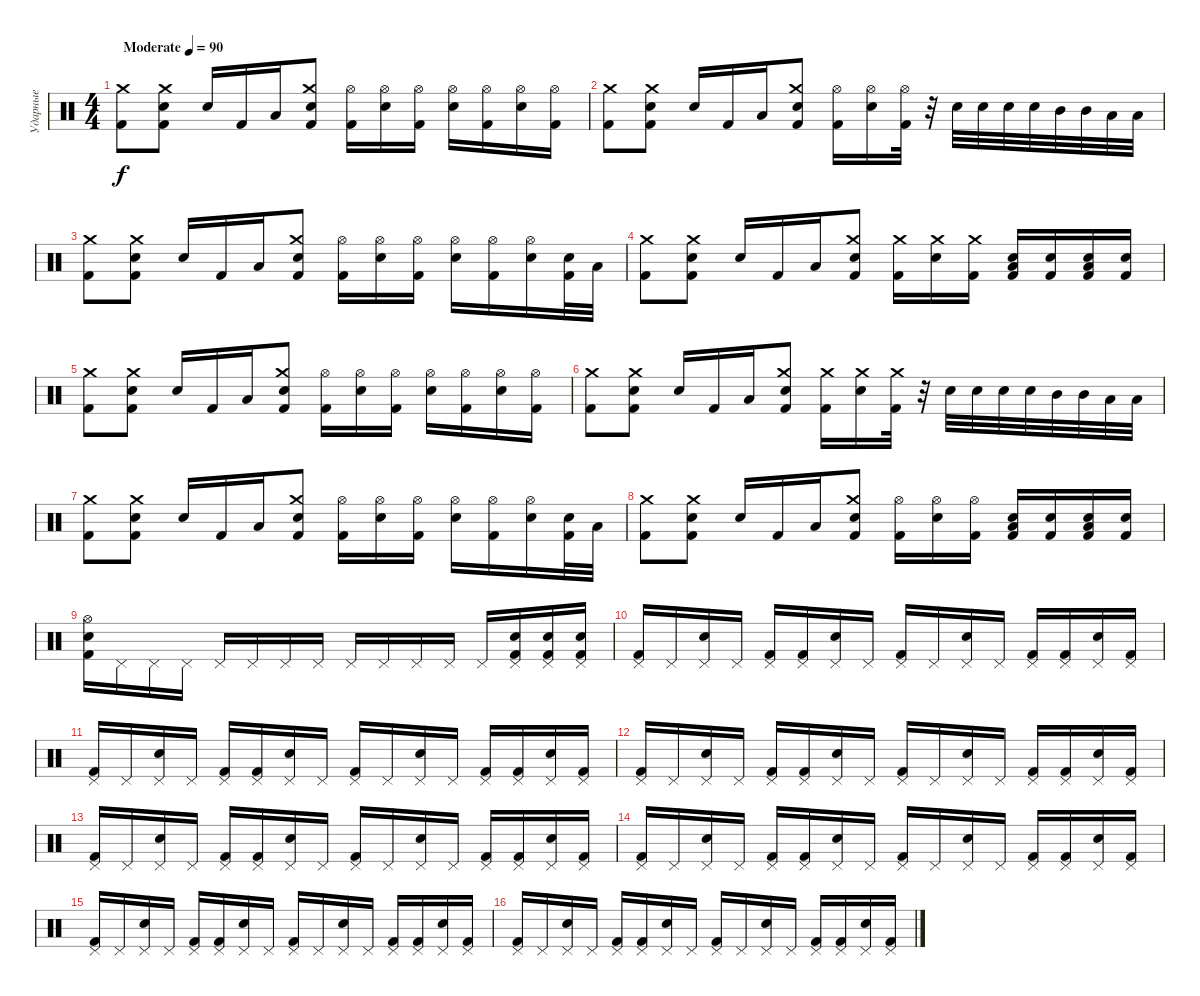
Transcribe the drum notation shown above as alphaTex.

\track ("Ударные" "Ударные") {instrument percussion}
\staff {score}
\articulation defaults
\ts (4 4)
\tempo (90 "Moderate")
\clef neutral
\ks c
("Kick (hit) 2" "Crash medium (hit)").8{dy f} ("Kick (hit) 2" "Electric Snare (hit)" "Crash medium (hit)").8 "Electric Snare (hit)".16 "Kick (hit) 2".16 "Low Tom (hit)".16 ("Kick (hit) 2" "Electric Snare (hit)" "Crash medium (hit)").8 ("Kick (hit) 2" "Hi-Hat (open)").16 ("Electric Snare (hit)" "Hi-Hat (open)").16 ("Kick (hit) 2" "Hi-Hat (open)").16 ("Electric Snare (hit)" "Hi-Hat (open)").16 ("Kick (hit) 2" "Hi-Hat (open)").16 ("Electric Snare (hit)" "Hi-Hat (open)").16 ("Kick (hit) 2" "Hi-Hat (open)").16 |
("Kick (hit) 2" "Crash medium (hit)").8 ("Kick (hit) 2" "Electric Snare (hit)" "Crash medium (hit)").8 "Electric Snare (hit)".16 "Kick (hit) 2".16 "Low Tom (hit)".16 ("Kick (hit) 2" "Electric Snare (hit)" "Crash medium (hit)").8 ("Kick (hit) 2" "Hi-Hat (open)").16 ("Electric Snare (hit)" "Hi-Hat (open)").16 ("Kick (hit) 2" "Hi-Hat (open)").32 r.32 "Electric Snare (hit)".32 "Electric Snare (hit)".32 "Electric Snare (hit)".32 "Electric Snare (hit)".32 "Mid Tom (hit)".32 "Mid Tom (hit)".32 "Low Tom (hit)".32 "Low Tom (hit)".32 |
("Kick (hit) 2" "Crash medium (hit)").8 ("Kick (hit) 2" "Electric Snare (hit)" "Crash medium (hit)").8 "Electric Snare (hit)".16 "Kick (hit) 2".16 "Low Tom (hit)".16 ("Kick (hit) 2" "Electric Snare (hit)" "Crash medium (hit)").8 ("Kick (hit) 2" "Hi-Hat (open)").16 ("Electric Snare (hit)" "Hi-Hat (open)").16 ("Kick (hit) 2" "Hi-Hat (open)").16 ("Electric Snare (hit)" "Hi-Hat (open)").16 ("Kick (hit) 2" "Hi-Hat (open)").16 ("Electric Snare (hit)" "Hi-Hat (open)").16 ("Kick (hit) 2" "Electric Snare (hit)").32 "Low Tom (hit)".32 |
("Kick (hit) 2" "Crash medium (hit)").8 ("Kick (hit) 2" "Electric Snare (hit)" "Crash medium (hit)").8 "Electric Snare (hit)".16 "Kick (hit) 2".16 "Low Tom (hit)".16 ("Kick (hit) 2" "Electric Snare (hit)" "Crash medium (hit)").8 ("Kick (hit) 2" "Crash medium (hit)").16 ("Electric Snare (hit)" "Crash medium (hit)").16 ("Kick (hit) 2" "Crash medium (hit)").16 ("Low Tom (hit)" "Electric Snare (hit)" "Kick (hit) 2").16 ("Electric Snare (hit)" "Kick (hit) 2").16 ("Low Tom (hit)" "Electric Snare (hit)" "Kick (hit) 2").16 ("Electric Snare (hit)" "Kick (hit) 2").16 |
("Kick (hit) 2" "Crash medium (hit)").8 ("Kick (hit) 2" "Electric Snare (hit)" "Crash medium (hit)").8 "Electric Snare (hit)".16 "Kick (hit) 2".16 "Low Tom (hit)".16 ("Kick (hit) 2" "Electric Snare (hit)" "Crash medium (hit)").8 ("Kick (hit) 2" "Hi-Hat (open)").16 ("Electric Snare (hit)" "Hi-Hat (open)").16 ("Kick (hit) 2" "Hi-Hat (open)").16 ("Electric Snare (hit)" "Hi-Hat (open)").16 ("Kick (hit) 2" "Hi-Hat (open)").16 ("Electric Snare (hit)" "Hi-Hat (open)").16 ("Kick (hit) 2" "Hi-Hat (open)").16 |
("Kick (hit) 2" "Crash medium (hit)").8 ("Kick (hit) 2" "Electric Snare (hit)" "Crash medium (hit)").8 "Electric Snare (hit)".16 "Kick (hit) 2".16 "Low Tom (hit)".16 ("Kick (hit) 2" "Electric Snare (hit)" "Crash medium (hit)").8 ("Kick (hit) 2" "Crash medium (hit)").16 ("Electric Snare (hit)" "Crash medium (hit)").16 ("Kick (hit) 2" "Crash medium (hit)").32 r.32 "Electric Snare (hit)".32 "Electric Snare (hit)".32 "Electric Snare (hit)".32 "Electric Snare (hit)".32 "Mid Tom (hit)".32 "Mid Tom (hit)".32 "Low Tom (hit)".32 "Low Tom (hit)".32 |
("Kick (hit) 2" "Crash medium (hit)").8 ("Kick (hit) 2" "Electric Snare (hit)" "Crash medium (hit)").8 "Electric Snare (hit)".16 "Kick (hit) 2".16 "Low Tom (hit)".16 ("Kick (hit) 2" "Electric Snare (hit)" "Crash medium (hit)").8 ("Kick (hit) 2" "Hi-Hat (open)").16 ("Electric Snare (hit)" "Hi-Hat (open)").16 ("Kick (hit) 2" "Hi-Hat (open)").16 ("Electric Snare (hit)" "Hi-Hat (open)").16 ("Kick (hit) 2" "Hi-Hat (open)").16 ("Electric Snare (hit)" "Hi-Hat (open)").16 ("Kick (hit) 2" "Electric Snare (hit)").32 "Low Tom (hit)".32 |
("Kick (hit) 2" "Crash medium (hit)").8 ("Kick (hit) 2" "Electric Snare (hit)" "Crash medium (hit)").8 "Electric Snare (hit)".16 "Kick (hit) 2".16 "Low Tom (hit)".16 ("Kick (hit) 2" "Electric Snare (hit)" "Crash medium (hit)").8 ("Kick (hit) 2" "Hi-Hat (open)").16 ("Electric Snare (hit)" "Hi-Hat (open)").16 ("Kick (hit) 2" "Hi-Hat (open)").16 ("Low Tom (hit)" "Electric Snare (hit)" "Kick (hit) 2").16 ("Electric Snare (hit)" "Kick (hit) 2").16 ("Low Tom (hit)" "Electric Snare (hit)" "Kick (hit) 2").16 ("Electric Snare (hit)" "Kick (hit) 2").16 |
("Kick (hit) 2" "Electric Snare (hit)" "Hi-Hat (open)").16 "Pedal Hi-Hat (hit)".16 "Pedal Hi-Hat (hit)".16 "Pedal Hi-Hat (hit)".16 "Pedal Hi-Hat (hit)".16 "Pedal Hi-Hat (hit)".16 "Pedal Hi-Hat (hit)".16 "Pedal Hi-Hat (hit)".16 "Pedal Hi-Hat (hit)".16 "Pedal Hi-Hat (hit)".16 "Pedal Hi-Hat (hit)".16 "Pedal Hi-Hat (hit)".16 "Pedal Hi-Hat (hit)".16 ("Kick (hit) 2" "Electric Snare (hit)" "Pedal Hi-Hat (hit)").16 ("Kick (hit) 2" "Electric Snare (hit)" "Pedal Hi-Hat (hit)").16 ("Kick (hit) 2" "Electric Snare (hit)" "Pedal Hi-Hat (hit)").16 |
("Kick (hit) 2" "Pedal Hi-Hat (hit)").16 "Pedal Hi-Hat (hit)".16 ("Electric Snare (hit)" "Pedal Hi-Hat (hit)").16 "Pedal Hi-Hat (hit)".16 ("Kick (hit) 2" "Pedal Hi-Hat (hit)").16 ("Kick (hit) 2" "Pedal Hi-Hat (hit)").16 ("Electric Snare (hit)" "Pedal Hi-Hat (hit)").16 "Pedal Hi-Hat (hit)".16 ("Kick (hit) 2" "Pedal Hi-Hat (hit)").16 "Pedal Hi-Hat (hit)".16 ("Electric Snare (hit)" "Pedal Hi-Hat (hit)").16 "Pedal Hi-Hat (hit)".16 ("Kick (hit) 2" "Pedal Hi-Hat (hit)").16 ("Kick (hit) 2" "Pedal Hi-Hat (hit)").16 ("Electric Snare (hit)" "Pedal Hi-Hat (hit)").16 ("Kick (hit) 2" "Pedal Hi-Hat (hit)").16 |
("Kick (hit) 2" "Pedal Hi-Hat (hit)").16 "Pedal Hi-Hat (hit)".16 ("Electric Snare (hit)" "Pedal Hi-Hat (hit)").16 "Pedal Hi-Hat (hit)".16 ("Kick (hit) 2" "Pedal Hi-Hat (hit)").16 ("Kick (hit) 2" "Pedal Hi-Hat (hit)").16 ("Electric Snare (hit)" "Pedal Hi-Hat (hit)").16 "Pedal Hi-Hat (hit)".16 ("Kick (hit) 2" "Pedal Hi-Hat (hit)").16 "Pedal Hi-Hat (hit)".16 ("Electric Snare (hit)" "Pedal Hi-Hat (hit)").16 "Pedal Hi-Hat (hit)".16 ("Kick (hit) 2" "Pedal Hi-Hat (hit)").16 ("Kick (hit) 2" "Pedal Hi-Hat (hit)").16 ("Electric Snare (hit)" "Pedal Hi-Hat (hit)").16 ("Kick (hit) 2" "Pedal Hi-Hat (hit)").16 |
("Kick (hit) 2" "Pedal Hi-Hat (hit)").16 "Pedal Hi-Hat (hit)".16 ("Electric Snare (hit)" "Pedal Hi-Hat (hit)").16 "Pedal Hi-Hat (hit)".16 ("Kick (hit) 2" "Pedal Hi-Hat (hit)").16 ("Kick (hit) 2" "Pedal Hi-Hat (hit)").16 ("Electric Snare (hit)" "Pedal Hi-Hat (hit)").16 "Pedal Hi-Hat (hit)".16 ("Kick (hit) 2" "Pedal Hi-Hat (hit)").16 "Pedal Hi-Hat (hit)".16 ("Electric Snare (hit)" "Pedal Hi-Hat (hit)").16 "Pedal Hi-Hat (hit)".16 ("Kick (hit) 2" "Pedal Hi-Hat (hit)").16 ("Kick (hit) 2" "Pedal Hi-Hat (hit)").16 ("Electric Snare (hit)" "Pedal Hi-Hat (hit)").16 ("Kick (hit) 2" "Pedal Hi-Hat (hit)").16 |
("Kick (hit) 2" "Pedal Hi-Hat (hit)").16 "Pedal Hi-Hat (hit)".16 ("Electric Snare (hit)" "Pedal Hi-Hat (hit)").16 "Pedal Hi-Hat (hit)".16 ("Kick (hit) 2" "Pedal Hi-Hat (hit)").16 ("Kick (hit) 2" "Pedal Hi-Hat (hit)").16 ("Electric Snare (hit)" "Pedal Hi-Hat (hit)").16 "Pedal Hi-Hat (hit)".16 ("Kick (hit) 2" "Pedal Hi-Hat (hit)").16 "Pedal Hi-Hat (hit)".16 ("Electric Snare (hit)" "Pedal Hi-Hat (hit)").16 "Pedal Hi-Hat (hit)".16 ("Kick (hit) 2" "Pedal Hi-Hat (hit)").16 ("Kick (hit) 2" "Pedal Hi-Hat (hit)").16 ("Electric Snare (hit)" "Pedal Hi-Hat (hit)").16 ("Kick (hit) 2" "Pedal Hi-Hat (hit)").16 |
("Kick (hit) 2" "Pedal Hi-Hat (hit)").16 "Pedal Hi-Hat (hit)".16 ("Electric Snare (hit)" "Pedal Hi-Hat (hit)").16 "Pedal Hi-Hat (hit)".16 ("Kick (hit) 2" "Pedal Hi-Hat (hit)").16 ("Kick (hit) 2" "Pedal Hi-Hat (hit)").16 ("Electric Snare (hit)" "Pedal Hi-Hat (hit)").16 "Pedal Hi-Hat (hit)".16 ("Kick (hit) 2" "Pedal Hi-Hat (hit)").16 "Pedal Hi-Hat (hit)".16 ("Electric Snare (hit)" "Pedal Hi-Hat (hit)").16 "Pedal Hi-Hat (hit)".16 ("Kick (hit) 2" "Pedal Hi-Hat (hit)").16 ("Kick (hit) 2" "Pedal Hi-Hat (hit)").16 ("Electric Snare (hit)" "Pedal Hi-Hat (hit)").16 ("Kick (hit) 2" "Pedal Hi-Hat (hit)").16 |
("Kick (hit) 2" "Pedal Hi-Hat (hit)").16 "Pedal Hi-Hat (hit)".16 ("Electric Snare (hit)" "Pedal Hi-Hat (hit)").16 "Pedal Hi-Hat (hit)".16 ("Kick (hit) 2" "Pedal Hi-Hat (hit)").16 ("Kick (hit) 2" "Pedal Hi-Hat (hit)").16 ("Electric Snare (hit)" "Pedal Hi-Hat (hit)").16 "Pedal Hi-Hat (hit)".16 ("Kick (hit) 2" "Pedal Hi-Hat (hit)").16 "Pedal Hi-Hat (hit)".16 ("Electric Snare (hit)" "Pedal Hi-Hat (hit)").16 "Pedal Hi-Hat (hit)".16 ("Kick (hit) 2" "Pedal Hi-Hat (hit)").16 ("Kick (hit) 2" "Pedal Hi-Hat (hit)").16 ("Electric Snare (hit)" "Pedal Hi-Hat (hit)").16 ("Kick (hit) 2" "Pedal Hi-Hat (hit)").16 |
("Kick (hit) 2" "Pedal Hi-Hat (hit)").16 "Pedal Hi-Hat (hit)".16 ("Electric Snare (hit)" "Pedal Hi-Hat (hit)").16 "Pedal Hi-Hat (hit)".16 ("Kick (hit) 2" "Pedal Hi-Hat (hit)").16 ("Kick (hit) 2" "Pedal Hi-Hat (hit)").16 ("Electric Snare (hit)" "Pedal Hi-Hat (hit)").16 "Pedal Hi-Hat (hit)".16 ("Kick (hit) 2" "Pedal Hi-Hat (hit)").16 "Pedal Hi-Hat (hit)".16 ("Electric Snare (hit)" "Pedal Hi-Hat (hit)").16 "Pedal Hi-Hat (hit)".16 ("Kick (hit) 2" "Pedal Hi-Hat (hit)").16 ("Kick (hit) 2" "Pedal Hi-Hat (hit)").16 ("Electric Snare (hit)" "Pedal Hi-Hat (hit)").16 ("Kick (hit) 2" "Pedal Hi-Hat (hit)").16
